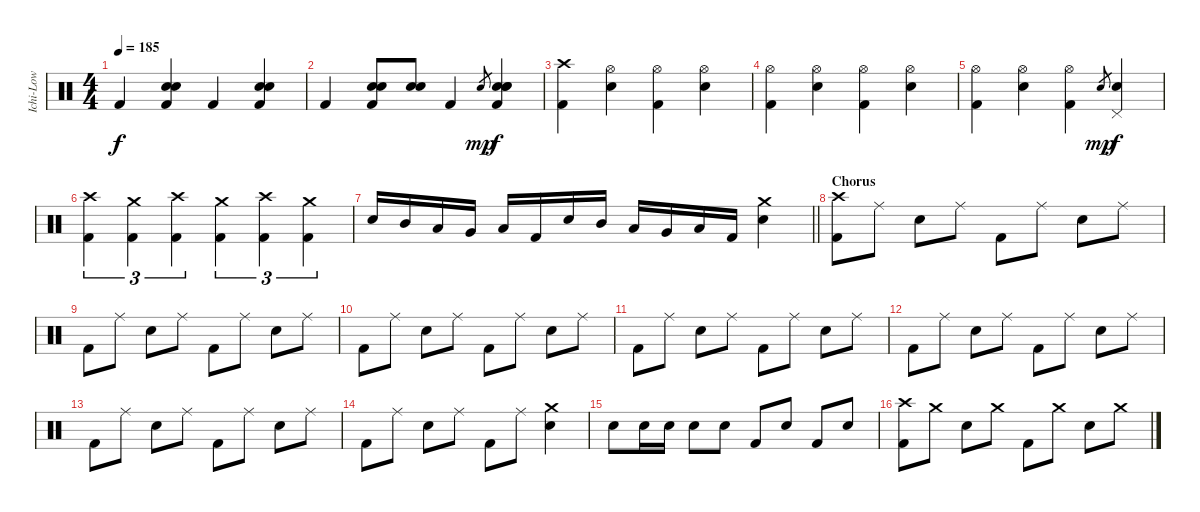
\track ("Ichi-Low" "Ichi-Low") {instrument percussion}
\staff {score}
\articulation defaults
\ts (4 4)
\tempo 185
\clef neutral
\ks c "Kick (hit) 2".4{dy f}
("Hand Clap (hit)" "Hand Clap (hit)" "Kick (hit) 2").4 "Kick (hit) 2".4 ("Hand Clap (hit)" "Hand Clap (hit)" "Kick (hit) 2").4 |
"Kick (hit) 2".4 ("Hand Clap (hit)" "Hand Clap (hit)" "Kick (hit) 2").8 ("Hand Clap (hit)" "Hand Clap (hit)").8 "Kick (hit) 2".4 "Electric Snare (hit)".8{gr dy mp} ("Hand Clap (hit)" "Hand Clap (hit)" "Electric Snare (hit)" "Kick (hit) 2").4{dy f} |
("Crash high (hit)" "Kick (hit) 2").4 ("Hi-Hat (open)" "Electric Snare (hit)").4 ("Hi-Hat (open)" "Kick (hit) 2").4 ("Hi-Hat (open)" "Electric Snare (hit)").4 |
("Hi-Hat (open)" "Kick (hit) 2").4 ("Hi-Hat (open)" "Electric Snare (hit)").4 ("Hi-Hat (open)" "Kick (hit) 2").4 ("Hi-Hat (open)" "Electric Snare (hit)").4 |
("Hi-Hat (open)" "Kick (hit) 2").4 ("Hi-Hat (open)" "Electric Snare (hit)").4 ("Hi-Hat (open)" "Kick (hit) 2").4 "Electric Snare (hit)".8{gr dy mp} ("Pedal Hi-Hat (hit)" "Electric Snare (hit)").4{dy f} |
("Crash high (hit)" "Kick (hit) 2").4{tu (3 2)} ("Crash medium (hit)" "Kick (hit) 2").4{tu (3 2)} ("Crash high (hit)" "Kick (hit) 2").4{tu (3 2)} ("Crash medium (hit)" "Kick (hit) 2").4{tu (3 2)} ("Crash high (hit)" "Kick (hit) 2").4{tu (3 2)} ("Crash medium (hit)" "Kick (hit) 2").4{tu (3 2)} |
\barLineRight lightlight "Electric Snare (hit)".16 "Mid Tom (hit)".16 "Low Tom (hit)".16 "Very Low Tom (hit)".16 "Low Floor Tom (hit)".16 "Kick (hit) 2".16 "Electric Snare (hit)".16 "Mid Tom (hit)".16 "Low Tom (hit)".16 "Very Low Tom (hit)".16 "Low Floor Tom (hit)".16 "Kick (hit) 2".16
("Crash medium (hit)" "Electric Snare (hit)").4 |
\section ("" "Chorus")
("Crash high (hit)" "Kick (hit) 2").8 "Ride (middle)".8 "Electric Snare (hit)".8 "Ride (middle)".8 "Kick (hit) 2".8 "Ride (middle)".8 "Electric Snare (hit)".8 "Ride (middle)".8 |
"Kick (hit) 2".8 "Ride (middle)".8 "Electric Snare (hit)".8 "Ride (middle)".8 "Kick (hit) 2".8 "Ride (middle)".8 "Electric Snare (hit)".8 "Ride (middle)".8 |
"Kick (hit) 2".8 "Ride (middle)".8 "Electric Snare (hit)".8 "Ride (middle)".8 "Kick (hit) 2".8 "Ride (middle)".8 "Electric Snare (hit)".8 "Ride (middle)".8 |
"Kick (hit) 2".8 "Ride (middle)".8 "Electric Snare (hit)".8 "Ride (middle)".8 "Kick (hit) 2".8 "Ride (middle)".8 "Electric Snare (hit)".8 "Ride (middle)".8 |
"Kick (hit) 2".8 "Ride (middle)".8 "Electric Snare (hit)".8 "Ride (middle)".8 "Kick (hit) 2".8 "Ride (middle)".8 "Electric Snare (hit)".8 "Ride (middle)".8 |
"Kick (hit) 2".8 "Ride (middle)".8 "Electric Snare (hit)".8 "Ride (middle)".8 "Kick (hit) 2".8 "Ride (middle)".8 "Electric Snare (hit)".8 "Ride (middle)".8 |
"Kick (hit) 2".8 "Ride (middle)".8 "Electric Snare (hit)".8 "Ride (middle)".8 "Kick (hit) 2".8 "Ride (middle)".8 ("Crash medium (hit)" "Electric Snare (hit)").4 |
"Electric Snare (hit)".8 "Electric Snare (hit)".16 "Electric Snare (hit)".16 "Electric Snare (hit)".8 "Electric Snare (hit)".8 "Kick (hit) 2".8 "Electric Snare (hit)".8 "Kick (hit) 2".8 "Electric Snare (hit)".8 |
("Crash high (hit)" "Kick (hit) 2").8 "Crash medium (hit)".8 "Electric Snare (hit)".8 "Crash medium (hit)".8 "Kick (hit) 2".8 "Crash medium (hit)".8 "Electric Snare (hit)".8 "Crash medium (hit)".8
